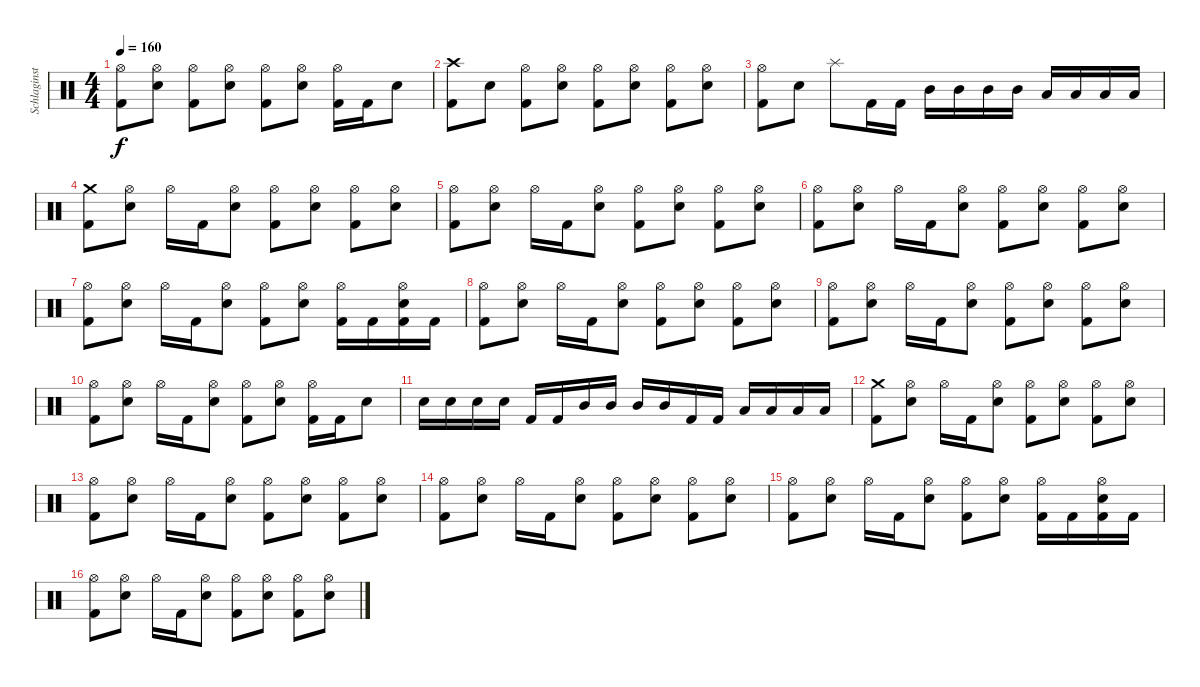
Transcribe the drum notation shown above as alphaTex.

\track ("Schlaginstrumente - Auswahl" "Schlaginst") {instrument percussion}
\staff {score}
\articulation defaults
\ts (4 4)
\tempo 160
\clef neutral
\ks c
("Hi-Hat (open)" "Kick (hit) 2").8{dy f} ("Hi-Hat (open)" "Snare (hit) 2").8 ("Hi-Hat (open)" "Kick (hit) 2").8 ("Hi-Hat (open)" "Snare (hit) 2").8 ("Hi-Hat (open)" "Kick (hit) 2").8 ("Hi-Hat (open)" "Snare (hit) 2").8 ("Hi-Hat (open)" "Kick (hit) 2").16 "Kick (hit) 2".16 "Snare (hit) 2".8 |
("Crash high (hit)" "Kick (hit) 2").8 "Snare (hit) 2".8 ("Hi-Hat (open)" "Kick (hit) 2").8 ("Hi-Hat (open)" "Snare (hit) 2").8 ("Hi-Hat (open)" "Kick (hit) 2").8 ("Hi-Hat (open)" "Snare (hit) 2").8 ("Hi-Hat (open)" "Kick (hit) 2").8 ("Hi-Hat (open)" "Snare (hit) 2").8 |
("Hi-Hat (open)" "Kick (hit) 2").8 "Snare (hit) 2".8 "Splash (hit)".8 "Kick (hit) 2".16 "Kick (hit) 2".16 "Mid Tom (hit)".16 "Mid Tom (hit)".16 "Mid Tom (hit)".16 "Mid Tom (hit)".16 "Low Tom (hit)".16 "Low Tom (hit)".16 "Low Tom (hit)".16 "Low Tom (hit)".16 |
("Crash medium (hit)" "Kick (hit) 2").8 ("Hi-Hat (open)" "Snare (hit) 2").8 "Hi-Hat (open)".16 "Kick (hit) 2".16 ("Hi-Hat (open)" "Snare (hit) 2").8 ("Hi-Hat (open)" "Kick (hit) 2").8 ("Hi-Hat (open)" "Snare (hit) 2").8 ("Hi-Hat (open)" "Kick (hit) 2").8 ("Hi-Hat (open)" "Snare (hit) 2").8 |
("Hi-Hat (open)" "Kick (hit) 2").8 ("Hi-Hat (open)" "Snare (hit) 2").8 "Hi-Hat (open)".16 "Kick (hit) 2".16 ("Hi-Hat (open)" "Snare (hit) 2").8 ("Hi-Hat (open)" "Kick (hit) 2").8 ("Hi-Hat (open)" "Snare (hit) 2").8 ("Hi-Hat (open)" "Kick (hit) 2").8 ("Hi-Hat (open)" "Snare (hit) 2").8 |
("Hi-Hat (open)" "Kick (hit) 2").8 ("Hi-Hat (open)" "Snare (hit) 2").8 "Hi-Hat (open)".16 "Kick (hit) 2".16 ("Hi-Hat (open)" "Snare (hit) 2").8 ("Hi-Hat (open)" "Kick (hit) 2").8 ("Hi-Hat (open)" "Snare (hit) 2").8 ("Hi-Hat (open)" "Kick (hit) 2").8 ("Hi-Hat (open)" "Snare (hit) 2").8 |
("Hi-Hat (open)" "Kick (hit) 2").8 ("Hi-Hat (open)" "Snare (hit) 2").8 "Hi-Hat (open)".16 "Kick (hit) 2".16 ("Hi-Hat (open)" "Snare (hit) 2").8 ("Hi-Hat (open)" "Kick (hit) 2").8 ("Hi-Hat (open)" "Snare (hit) 2").8 ("Hi-Hat (open)" "Kick (hit) 2").16 "Kick (hit) 2".16 ("Hi-Hat (open)" "Snare (hit) 2" "Kick (hit) 2").16 "Kick (hit) 2".16 |
("Hi-Hat (open)" "Kick (hit) 2").8 ("Hi-Hat (open)" "Snare (hit) 2").8 "Hi-Hat (open)".16 "Kick (hit) 2".16 ("Hi-Hat (open)" "Snare (hit) 2").8 ("Hi-Hat (open)" "Kick (hit) 2").8 ("Hi-Hat (open)" "Snare (hit) 2").8 ("Hi-Hat (open)" "Kick (hit) 2").8 ("Hi-Hat (open)" "Snare (hit) 2").8 |
("Hi-Hat (open)" "Kick (hit) 2").8 ("Hi-Hat (open)" "Snare (hit) 2").8 "Hi-Hat (open)".16 "Kick (hit) 2".16 ("Hi-Hat (open)" "Snare (hit) 2").8 ("Hi-Hat (open)" "Kick (hit) 2").8 ("Hi-Hat (open)" "Snare (hit) 2").8 ("Hi-Hat (open)" "Kick (hit) 2").8 ("Hi-Hat (open)" "Snare (hit) 2").8 |
("Hi-Hat (open)" "Kick (hit) 2").8 ("Hi-Hat (open)" "Snare (hit) 2").8 "Hi-Hat (open)".16 "Kick (hit) 2".16 ("Hi-Hat (open)" "Snare (hit) 2").8 ("Hi-Hat (open)" "Kick (hit) 2").8 ("Hi-Hat (open)" "Snare (hit) 2").8 ("Hi-Hat (open)" "Kick (hit) 2").16 "Kick (hit) 2".16 "Snare (hit) 2".8 |
"Snare (hit) 2".16 "Snare (hit) 2".16 "Snare (hit) 2".16 "Snare (hit) 2".16 "Kick (hit) 2".16 "Kick (hit) 2".16 "Mid Tom (hit)".16 "Mid Tom (hit)".16 "Mid Tom (hit)".16 "Mid Tom (hit)".16 "Kick (hit) 2".16 "Kick (hit) 2".16 "Low Tom (hit)".16 "Low Tom (hit)".16 "Low Tom (hit)".16 "Low Tom (hit)".16 |
("Crash medium (hit)" "Kick (hit) 2").8 ("Hi-Hat (open)" "Snare (hit) 2").8 "Hi-Hat (open)".16 "Kick (hit) 2".16 ("Hi-Hat (open)" "Snare (hit) 2").8 ("Hi-Hat (open)" "Kick (hit) 2").8 ("Hi-Hat (open)" "Snare (hit) 2").8 ("Hi-Hat (open)" "Kick (hit) 2").8 ("Hi-Hat (open)" "Snare (hit) 2").8 |
("Hi-Hat (open)" "Kick (hit) 2").8 ("Hi-Hat (open)" "Snare (hit) 2").8 "Hi-Hat (open)".16 "Kick (hit) 2".16 ("Hi-Hat (open)" "Snare (hit) 2").8 ("Hi-Hat (open)" "Kick (hit) 2").8 ("Hi-Hat (open)" "Snare (hit) 2").8 ("Hi-Hat (open)" "Kick (hit) 2").8 ("Hi-Hat (open)" "Snare (hit) 2").8 |
("Hi-Hat (open)" "Kick (hit) 2").8 ("Hi-Hat (open)" "Snare (hit) 2").8 "Hi-Hat (open)".16 "Kick (hit) 2".16 ("Hi-Hat (open)" "Snare (hit) 2").8 ("Hi-Hat (open)" "Kick (hit) 2").8 ("Hi-Hat (open)" "Snare (hit) 2").8 ("Hi-Hat (open)" "Kick (hit) 2").8 ("Hi-Hat (open)" "Snare (hit) 2").8 |
("Hi-Hat (open)" "Kick (hit) 2").8 ("Hi-Hat (open)" "Snare (hit) 2").8 "Hi-Hat (open)".16 "Kick (hit) 2".16 ("Hi-Hat (open)" "Snare (hit) 2").8 ("Hi-Hat (open)" "Kick (hit) 2").8 ("Hi-Hat (open)" "Snare (hit) 2").8 ("Hi-Hat (open)" "Kick (hit) 2").16 "Kick (hit) 2".16 ("Hi-Hat (open)" "Snare (hit) 2" "Kick (hit) 2").16 "Kick (hit) 2".16 |
("Hi-Hat (open)" "Kick (hit) 2").8 ("Hi-Hat (open)" "Snare (hit) 2").8 "Hi-Hat (open)".16 "Kick (hit) 2".16 ("Hi-Hat (open)" "Snare (hit) 2").8 ("Hi-Hat (open)" "Kick (hit) 2").8 ("Hi-Hat (open)" "Snare (hit) 2").8 ("Hi-Hat (open)" "Kick (hit) 2").8 ("Hi-Hat (open)" "Snare (hit) 2").8
